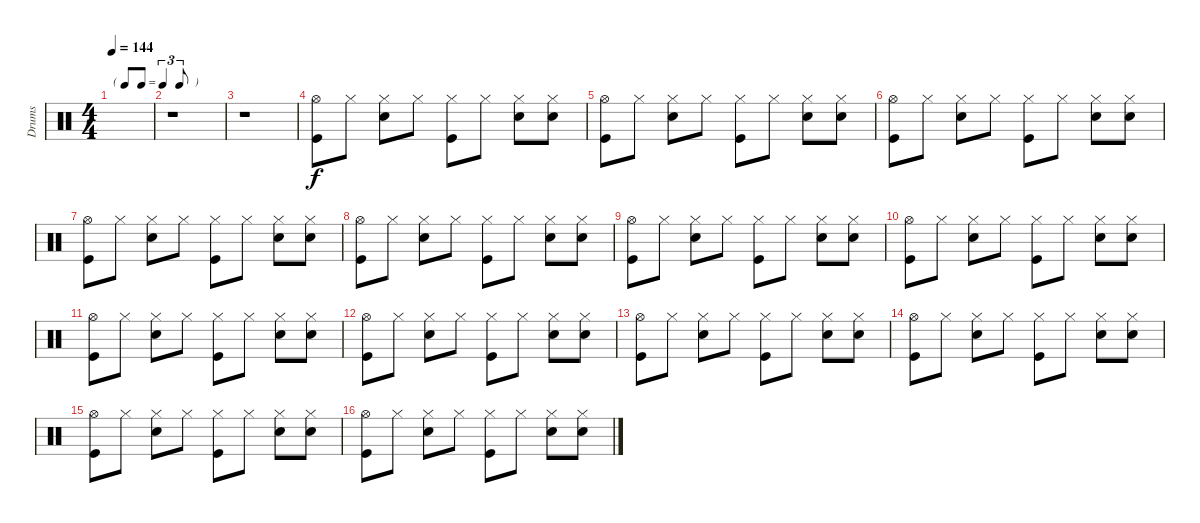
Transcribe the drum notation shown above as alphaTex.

\track ("Drums" "Drums") {instrument percussion}
\staff {score}
\articulation defaults
\ts (4 4)
\tf triplet8th
\tempo 144
\clef neutral
\ks c
|
r.1 |
r.1 |
("Kick (hit)" "Hi-Hat (open)").8 "Hi-Hat (closed)".8 ("Snare (hit) 2" "Hi-Hat (closed)").8 "Hi-Hat (closed)".8 ("Kick (hit)" "Hi-Hat (closed)").8 "Hi-Hat (closed)".8 ("Snare (hit) 2" "Hi-Hat (closed)").8 ("Snare (hit) 2" "Hi-Hat (closed)").8 |
("Kick (hit)" "Hi-Hat (open)").8 "Hi-Hat (closed)".8 ("Snare (hit) 2" "Hi-Hat (closed)").8 "Hi-Hat (closed)".8 ("Kick (hit)" "Hi-Hat (closed)").8 "Hi-Hat (closed)".8 ("Snare (hit) 2" "Hi-Hat (closed)").8 ("Snare (hit) 2" "Hi-Hat (closed)").8 |
("Kick (hit)" "Hi-Hat (open)").8 "Hi-Hat (closed)".8 ("Snare (hit) 2" "Hi-Hat (closed)").8 "Hi-Hat (closed)".8 ("Kick (hit)" "Hi-Hat (closed)").8 "Hi-Hat (closed)".8 ("Snare (hit) 2" "Hi-Hat (closed)").8 ("Snare (hit) 2" "Hi-Hat (closed)").8 |
("Kick (hit)" "Hi-Hat (open)").8 "Hi-Hat (closed)".8 ("Snare (hit) 2" "Hi-Hat (closed)").8 "Hi-Hat (closed)".8 ("Kick (hit)" "Hi-Hat (closed)").8 "Hi-Hat (closed)".8 ("Snare (hit) 2" "Hi-Hat (closed)").8 ("Snare (hit) 2" "Hi-Hat (closed)").8 |
("Kick (hit)" "Hi-Hat (open)").8 "Hi-Hat (closed)".8 ("Snare (hit) 2" "Hi-Hat (closed)").8 "Hi-Hat (closed)".8 ("Kick (hit)" "Hi-Hat (closed)").8 "Hi-Hat (closed)".8 ("Snare (hit) 2" "Hi-Hat (closed)").8 ("Snare (hit) 2" "Hi-Hat (closed)").8 |
("Kick (hit)" "Hi-Hat (open)").8 "Hi-Hat (closed)".8 ("Snare (hit) 2" "Hi-Hat (closed)").8 "Hi-Hat (closed)".8 ("Kick (hit)" "Hi-Hat (closed)").8 "Hi-Hat (closed)".8 ("Snare (hit) 2" "Hi-Hat (closed)").8 ("Snare (hit) 2" "Hi-Hat (closed)").8 |
("Kick (hit)" "Hi-Hat (open)").8 "Hi-Hat (closed)".8 ("Snare (hit) 2" "Hi-Hat (closed)").8 "Hi-Hat (closed)".8 ("Kick (hit)" "Hi-Hat (closed)").8 "Hi-Hat (closed)".8 ("Snare (hit) 2" "Hi-Hat (closed)").8 ("Snare (hit) 2" "Hi-Hat (closed)").8 |
("Kick (hit)" "Hi-Hat (open)").8 "Hi-Hat (closed)".8 ("Snare (hit) 2" "Hi-Hat (closed)").8 "Hi-Hat (closed)".8 ("Kick (hit)" "Hi-Hat (closed)").8 "Hi-Hat (closed)".8 ("Snare (hit) 2" "Hi-Hat (closed)").8 ("Snare (hit) 2" "Hi-Hat (closed)").8 |
("Kick (hit)" "Hi-Hat (open)").8 "Hi-Hat (closed)".8 ("Snare (hit) 2" "Hi-Hat (closed)").8 "Hi-Hat (closed)".8 ("Kick (hit)" "Hi-Hat (closed)").8 "Hi-Hat (closed)".8 ("Snare (hit) 2" "Hi-Hat (closed)").8 ("Snare (hit) 2" "Hi-Hat (closed)").8 |
("Kick (hit)" "Hi-Hat (open)").8 "Hi-Hat (closed)".8 ("Snare (hit) 2" "Hi-Hat (closed)").8 "Hi-Hat (closed)".8 ("Kick (hit)" "Hi-Hat (closed)").8 "Hi-Hat (closed)".8 ("Snare (hit) 2" "Hi-Hat (closed)").8 ("Snare (hit) 2" "Hi-Hat (closed)").8 |
("Kick (hit)" "Hi-Hat (open)").8 "Hi-Hat (closed)".8 ("Snare (hit) 2" "Hi-Hat (closed)").8 "Hi-Hat (closed)".8 ("Kick (hit)" "Hi-Hat (closed)").8 "Hi-Hat (closed)".8 ("Snare (hit) 2" "Hi-Hat (closed)").8 ("Snare (hit) 2" "Hi-Hat (closed)").8 |
("Kick (hit)" "Hi-Hat (open)").8 "Hi-Hat (closed)".8 ("Snare (hit) 2" "Hi-Hat (closed)").8 "Hi-Hat (closed)".8 ("Kick (hit)" "Hi-Hat (closed)").8 "Hi-Hat (closed)".8 ("Snare (hit) 2" "Hi-Hat (closed)").8 ("Snare (hit) 2" "Hi-Hat (closed)").8 |
("Kick (hit)" "Hi-Hat (open)").8 "Hi-Hat (closed)".8 ("Snare (hit) 2" "Hi-Hat (closed)").8 "Hi-Hat (closed)".8 ("Kick (hit)" "Hi-Hat (closed)").8 "Hi-Hat (closed)".8 ("Snare (hit) 2" "Hi-Hat (closed)").8 ("Snare (hit) 2" "Hi-Hat (closed)").8
